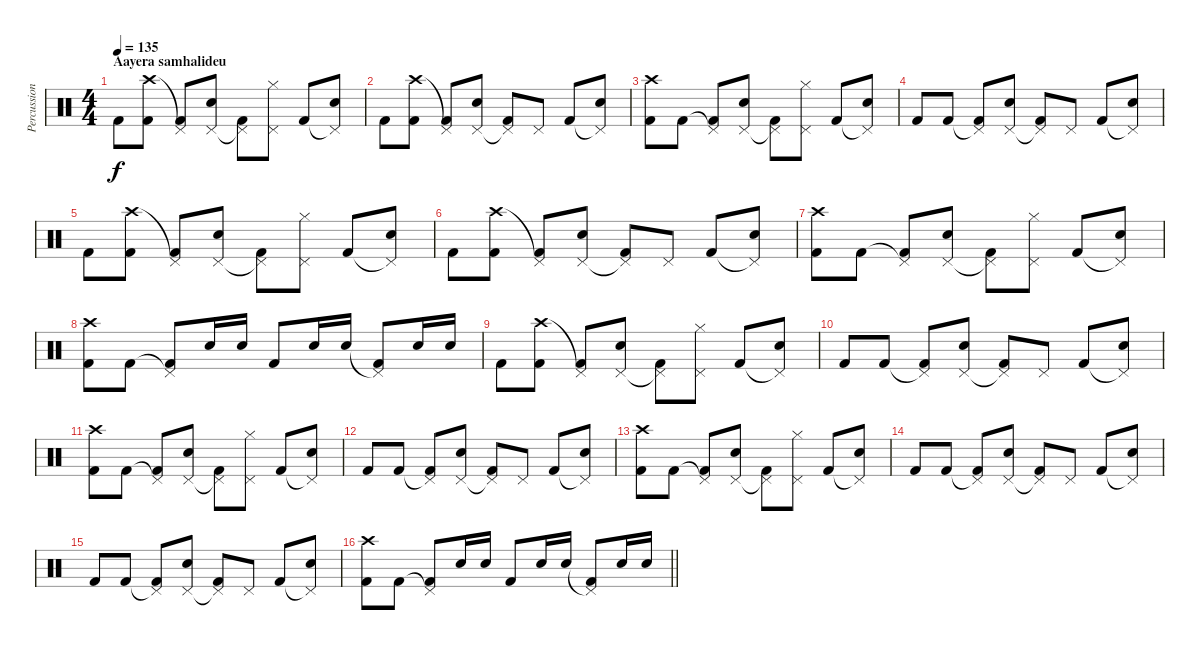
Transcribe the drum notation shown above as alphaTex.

\track ("Percussion" "Percussion") {instrument percussion}
\staff {score}
\articulation defaults
\ts (4 4)
\section ("" "Aayera samhalideu")
\tempo 135
\clef neutral
\ks c "Kick (hit) 2".8{dy f}
("Crash high (hit)" "Kick (hit) 2").8 ("Pedal Hi-Hat (hit)"{t} "Kick (hit) 2").8 ("Pedal Hi-Hat (hit)" "Electric Snare (hit)").8 ("Pedal Hi-Hat (hit)"{t} "Kick (hit) 2").8 ("Pedal Hi-Hat (hit)" "Hi-Hat (closed)").8 "Kick (hit) 2".8 ("Pedal Hi-Hat (hit)"{t} "Electric Snare (hit)").8 |
"Kick (hit) 2".8 ("Crash high (hit)" "Kick (hit) 2").8 ("Pedal Hi-Hat (hit)"{t} "Kick (hit) 2").8 ("Pedal Hi-Hat (hit)" "Electric Snare (hit)").8 ("Pedal Hi-Hat (hit)"{t} "Kick (hit) 2").8 "Pedal Hi-Hat (hit)".8 "Kick (hit) 2".8 ("Pedal Hi-Hat (hit)"{t} "Electric Snare (hit)").8 |
("Crash high (hit)" "Kick (hit) 2").8 "Kick (hit) 2".8 ("Pedal Hi-Hat (hit)"{t} "Kick (hit) 2").8 ("Pedal Hi-Hat (hit)" "Electric Snare (hit)").8 ("Pedal Hi-Hat (hit)"{t} "Kick (hit) 2").8 ("Pedal Hi-Hat (hit)" "Hi-Hat (closed)").8 "Kick (hit) 2".8 ("Pedal Hi-Hat (hit)"{t} "Electric Snare (hit)").8 |
"Kick (hit) 2".8 "Kick (hit) 2".8 ("Pedal Hi-Hat (hit)"{t} "Kick (hit) 2").8 ("Pedal Hi-Hat (hit)" "Electric Snare (hit)").8 ("Pedal Hi-Hat (hit)"{t} "Kick (hit) 2").8 "Pedal Hi-Hat (hit)".8 "Kick (hit) 2".8 ("Pedal Hi-Hat (hit)"{t} "Electric Snare (hit)").8 |
"Kick (hit) 2".8 ("Crash high (hit)" "Kick (hit) 2").8 ("Pedal Hi-Hat (hit)"{t} "Kick (hit) 2").8 ("Pedal Hi-Hat (hit)" "Electric Snare (hit)").8 ("Pedal Hi-Hat (hit)"{t} "Kick (hit) 2").8 ("Pedal Hi-Hat (hit)" "Hi-Hat (closed)").8 "Kick (hit) 2".8 ("Pedal Hi-Hat (hit)"{t} "Electric Snare (hit)").8 |
"Kick (hit) 2".8 ("Crash high (hit)" "Kick (hit) 2").8 ("Pedal Hi-Hat (hit)"{t} "Kick (hit) 2").8 ("Pedal Hi-Hat (hit)" "Electric Snare (hit)").8 ("Pedal Hi-Hat (hit)"{t} "Kick (hit) 2").8 "Pedal Hi-Hat (hit)".8 "Kick (hit) 2".8 ("Pedal Hi-Hat (hit)"{t} "Electric Snare (hit)").8 |
("Crash high (hit)" "Kick (hit) 2").8 "Kick (hit) 2".8 ("Pedal Hi-Hat (hit)"{t} "Kick (hit) 2").8 ("Pedal Hi-Hat (hit)" "Electric Snare (hit)").8 ("Pedal Hi-Hat (hit)"{t} "Kick (hit) 2").8 ("Pedal Hi-Hat (hit)" "Hi-Hat (closed)").8 "Kick (hit) 2".8 ("Pedal Hi-Hat (hit)"{t} "Electric Snare (hit)").8 |
("Crash high (hit)" "Kick (hit) 2").8 "Kick (hit) 2".8 ("Pedal Hi-Hat (hit)"{t} "Kick (hit) 2").8 "Electric Snare (hit)".16 "Electric Snare (hit)".16 "Kick (hit) 2".8 "Electric Snare (hit)".16 "Electric Snare (hit)".16 ("Pedal Hi-Hat (hit)"{t} "Kick (hit) 2").8 "Electric Snare (hit)".16 "Electric Snare (hit)".16 |
"Kick (hit) 2".8 ("Crash high (hit)" "Kick (hit) 2").8 ("Pedal Hi-Hat (hit)"{t} "Kick (hit) 2").8 ("Pedal Hi-Hat (hit)" "Electric Snare (hit)").8 ("Pedal Hi-Hat (hit)"{t} "Kick (hit) 2").8 ("Pedal Hi-Hat (hit)" "Hi-Hat (closed)").8 "Kick (hit) 2".8 ("Pedal Hi-Hat (hit)"{t} "Electric Snare (hit)").8 |
"Kick (hit) 2".8 "Kick (hit) 2".8 ("Pedal Hi-Hat (hit)"{t} "Kick (hit) 2").8 ("Pedal Hi-Hat (hit)" "Electric Snare (hit)").8 ("Pedal Hi-Hat (hit)"{t} "Kick (hit) 2").8 "Pedal Hi-Hat (hit)".8 "Kick (hit) 2".8 ("Pedal Hi-Hat (hit)"{t} "Electric Snare (hit)").8 |
("Crash high (hit)" "Kick (hit) 2").8 "Kick (hit) 2".8 ("Pedal Hi-Hat (hit)"{t} "Kick (hit) 2").8 ("Pedal Hi-Hat (hit)" "Electric Snare (hit)").8 ("Pedal Hi-Hat (hit)"{t} "Kick (hit) 2").8 ("Pedal Hi-Hat (hit)" "Hi-Hat (closed)").8 "Kick (hit) 2".8 ("Pedal Hi-Hat (hit)"{t} "Electric Snare (hit)").8 |
"Kick (hit) 2".8 "Kick (hit) 2".8 ("Pedal Hi-Hat (hit)"{t} "Kick (hit) 2").8 ("Pedal Hi-Hat (hit)" "Electric Snare (hit)").8 ("Pedal Hi-Hat (hit)"{t} "Kick (hit) 2").8 "Pedal Hi-Hat (hit)".8 "Kick (hit) 2".8 ("Pedal Hi-Hat (hit)"{t} "Electric Snare (hit)").8 |
("Crash high (hit)" "Kick (hit) 2").8 "Kick (hit) 2".8 ("Pedal Hi-Hat (hit)"{t} "Kick (hit) 2").8 ("Pedal Hi-Hat (hit)" "Electric Snare (hit)").8 ("Pedal Hi-Hat (hit)"{t} "Kick (hit) 2").8 ("Pedal Hi-Hat (hit)" "Hi-Hat (closed)").8 "Kick (hit) 2".8 ("Pedal Hi-Hat (hit)"{t} "Electric Snare (hit)").8 |
"Kick (hit) 2".8 "Kick (hit) 2".8 ("Pedal Hi-Hat (hit)"{t} "Kick (hit) 2").8 ("Pedal Hi-Hat (hit)" "Electric Snare (hit)").8 ("Pedal Hi-Hat (hit)"{t} "Kick (hit) 2").8 "Pedal Hi-Hat (hit)".8 "Kick (hit) 2".8 ("Pedal Hi-Hat (hit)"{t} "Electric Snare (hit)").8 |
"Kick (hit) 2".8 "Kick (hit) 2".8 ("Pedal Hi-Hat (hit)"{t} "Kick (hit) 2").8 ("Pedal Hi-Hat (hit)" "Electric Snare (hit)").8 ("Pedal Hi-Hat (hit)"{t} "Kick (hit) 2").8 "Pedal Hi-Hat (hit)".8 "Kick (hit) 2".8 ("Pedal Hi-Hat (hit)"{t} "Electric Snare (hit)").8 |
\barLineRight lightlight
("Crash high (hit)" "Kick (hit) 2").8 "Kick (hit) 2".8 ("Pedal Hi-Hat (hit)"{t} "Kick (hit) 2").8 "Electric Snare (hit)".16 "Electric Snare (hit)".16 "Kick (hit) 2".8 "Electric Snare (hit)".16 "Electric Snare (hit)".16 ("Pedal Hi-Hat (hit)"{t} "Kick (hit) 2").8 "Electric Snare (hit)".16 "Electric Snare (hit)".16
